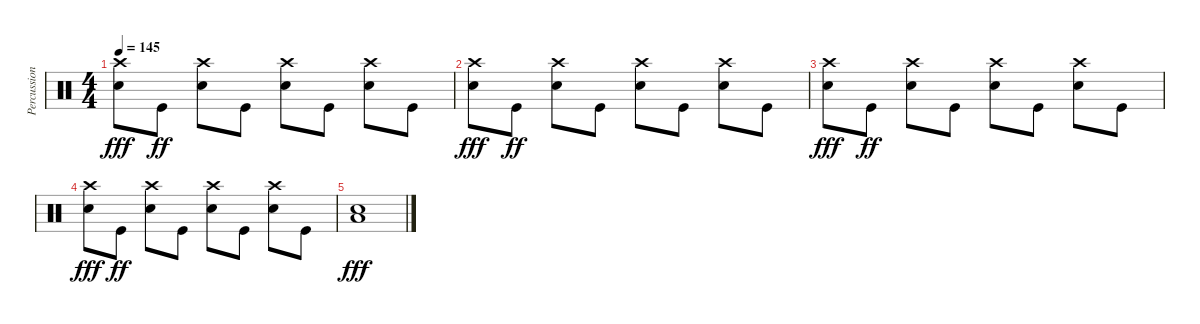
\track ("Percussion" "Percussion") {instrument percussion}
\staff {score}
\articulation defaults
\ts (4 4)
\tempo 145
\clef neutral
\ks c
("Crash high (hit)" "Snare (hit) 2").8{dy fff} "Kick (hit)".8{dy ff} ("Crash high (hit)" "Snare (hit) 2").8 "Kick (hit)".8 ("Crash high (hit)" "Snare (hit) 2").8 "Kick (hit)".8 ("Crash high (hit)" "Snare (hit) 2").8 "Kick (hit)".8 |
("Crash high (hit)" "Snare (hit) 2").8{dy fff} "Kick (hit)".8{dy ff} ("Crash high (hit)" "Snare (hit) 2").8 "Kick (hit)".8 ("Crash high (hit)" "Snare (hit) 2").8 "Kick (hit)".8 ("Crash high (hit)" "Snare (hit) 2").8 "Kick (hit)".8 |
("Crash high (hit)" "Snare (hit) 2").8{dy fff} "Kick (hit)".8{dy ff} ("Crash high (hit)" "Snare (hit) 2").8 "Kick (hit)".8 ("Crash high (hit)" "Snare (hit) 2").8 "Kick (hit)".8 ("Crash high (hit)" "Snare (hit) 2").8 "Kick (hit)".8 |
("Crash high (hit)" "Snare (hit) 2").8{dy fff} "Kick (hit)".8{dy ff} ("Crash high (hit)" "Snare (hit) 2").8 "Kick (hit)".8 ("Crash high (hit)" "Snare (hit) 2").8 "Kick (hit)".8 ("Crash high (hit)" "Snare (hit) 2").8 "Kick (hit)".8 |
("Low Floor Tom (hit)" "Snare (hit) 2").1{dy fff}
